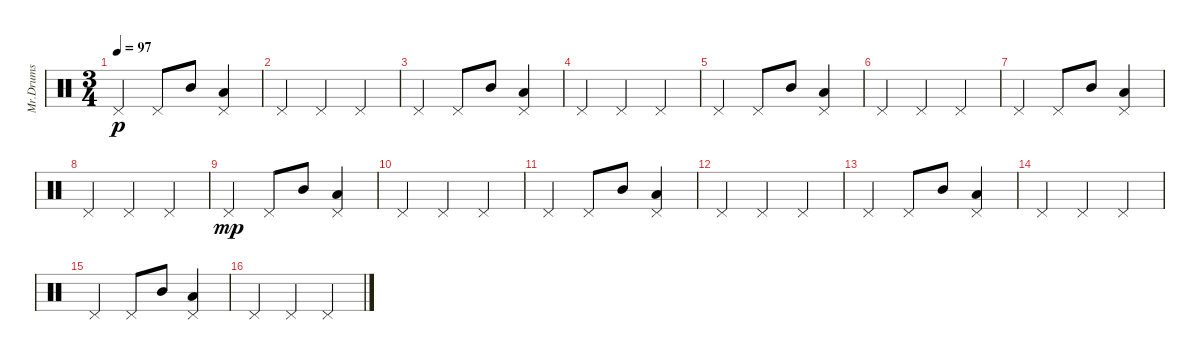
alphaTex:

\track ("Mr.Drums" "Mr.Drums") {instrument percussion}
\staff {score}
\articulation defaults
\ts (3 4)
\tempo 97
\clef neutral
\ks c "Pedal Hi-Hat (hit)".4{dy p} "Pedal Hi-Hat (hit)".8 "Mid Tom (hit)".8
("Pedal Hi-Hat (hit)" "Low Floor Tom (hit)").4 |
"Pedal Hi-Hat (hit)".4 "Pedal Hi-Hat (hit)".4 "Pedal Hi-Hat (hit)".4 |
"Pedal Hi-Hat (hit)".4 "Pedal Hi-Hat (hit)".8 "Mid Tom (hit)".8 ("Pedal Hi-Hat (hit)" "Low Floor Tom (hit)").4 |
"Pedal Hi-Hat (hit)".4 "Pedal Hi-Hat (hit)".4 "Pedal Hi-Hat (hit)".4 |
"Pedal Hi-Hat (hit)".4 "Pedal Hi-Hat (hit)".8 "Mid Tom (hit)".8 ("Pedal Hi-Hat (hit)" "Low Floor Tom (hit)").4 |
"Pedal Hi-Hat (hit)".4 "Pedal Hi-Hat (hit)".4 "Pedal Hi-Hat (hit)".4 |
"Pedal Hi-Hat (hit)".4 "Pedal Hi-Hat (hit)".8 "Mid Tom (hit)".8 ("Pedal Hi-Hat (hit)" "Low Floor Tom (hit)").4 |
"Pedal Hi-Hat (hit)".4 "Pedal Hi-Hat (hit)".4 "Pedal Hi-Hat (hit)".4 |
"Pedal Hi-Hat (hit)".4{dy mp} "Pedal Hi-Hat (hit)".8 "Mid Tom (hit)".8 ("Pedal Hi-Hat (hit)" "Low Floor Tom (hit)").4 |
"Pedal Hi-Hat (hit)".4 "Pedal Hi-Hat (hit)".4 "Pedal Hi-Hat (hit)".4 |
"Pedal Hi-Hat (hit)".4 "Pedal Hi-Hat (hit)".8 "Mid Tom (hit)".8 ("Pedal Hi-Hat (hit)" "Low Floor Tom (hit)").4 |
"Pedal Hi-Hat (hit)".4 "Pedal Hi-Hat (hit)".4 "Pedal Hi-Hat (hit)".4 |
"Pedal Hi-Hat (hit)".4 "Pedal Hi-Hat (hit)".8 "Mid Tom (hit)".8 ("Pedal Hi-Hat (hit)" "Low Floor Tom (hit)").4 |
"Pedal Hi-Hat (hit)".4 "Pedal Hi-Hat (hit)".4 "Pedal Hi-Hat (hit)".4 |
"Pedal Hi-Hat (hit)".4 "Pedal Hi-Hat (hit)".8 "Mid Tom (hit)".8 ("Pedal Hi-Hat (hit)" "Low Floor Tom (hit)").4 |
"Pedal Hi-Hat (hit)".4 "Pedal Hi-Hat (hit)".4 "Pedal Hi-Hat (hit)".4
